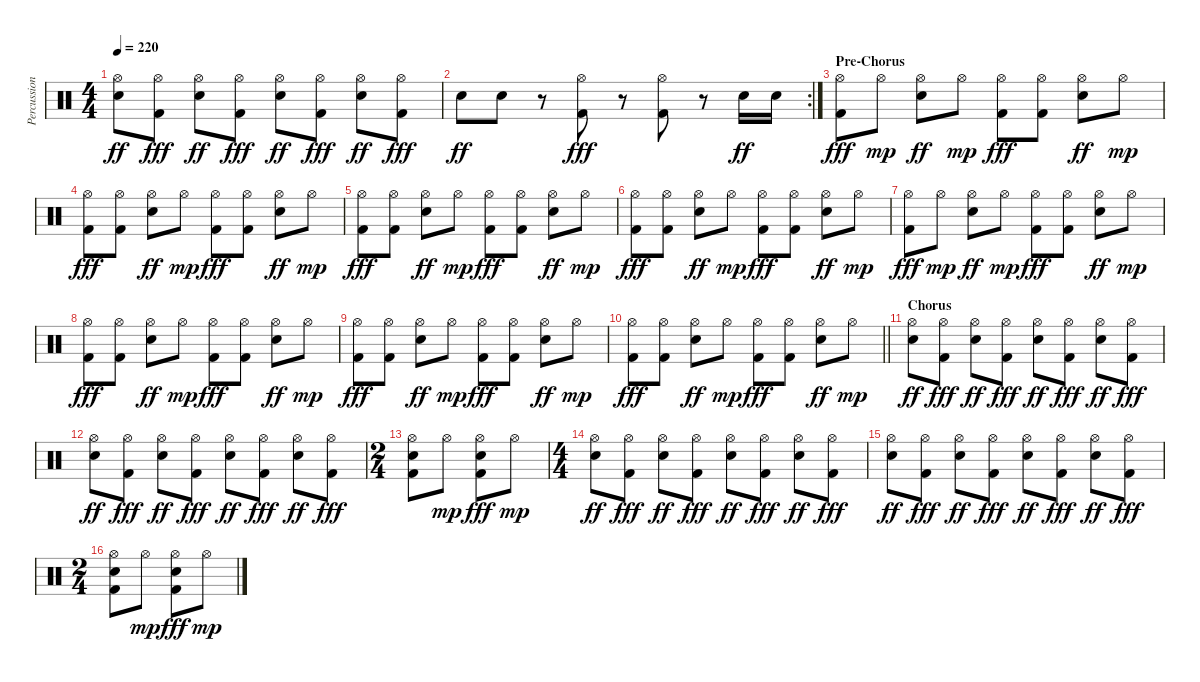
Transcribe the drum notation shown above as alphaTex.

\track ("Percussion" "Percussion") {instrument percussion}
\staff {score}
\articulation defaults
\ts (4 4)
\tempo 220
\clef neutral
\ks c
("Hi-Hat (open)" "Electric Snare (hit)").8{dy ff} ("Hi-Hat (open)" "Kick (hit) 2").8{dy fff} ("Hi-Hat (open)" "Electric Snare (hit)").8{dy ff} ("Hi-Hat (open)" "Kick (hit) 2").8{dy fff} ("Hi-Hat (open)" "Electric Snare (hit)").8{dy ff} ("Hi-Hat (open)" "Kick (hit) 2").8{dy fff} ("Hi-Hat (open)" "Electric Snare (hit)").8{dy ff} ("Hi-Hat (open)" "Kick (hit) 2").8{dy fff} |
\rc 2 "Electric Snare (hit)".8{dy ff} "Electric Snare (hit)".8
r.8 ("Hi-Hat (open)" "Kick (hit) 2").8{dy fff} r.8 ("Hi-Hat (open)" "Kick (hit) 2").8 r.8 "Electric Snare (hit)".16{dy ff} "Electric Snare (hit)".16 |
\section ("" "Pre-Chorus")
("Hi-Hat (open)" "Kick (hit) 2").8{dy fff} "Hi-Hat (open)".8{dy mp} ("Hi-Hat (open)" "Electric Snare (hit)").8{dy ff} "Hi-Hat (open)".8{dy mp} ("Hi-Hat (open)" "Kick (hit) 2").8{dy fff} ("Hi-Hat (open)" "Kick (hit) 2").8 ("Hi-Hat (open)" "Electric Snare (hit)").8{dy ff} "Hi-Hat (open)".8{dy mp} |
("Hi-Hat (open)" "Kick (hit) 2").8{dy fff} ("Hi-Hat (open)" "Kick (hit) 2").8 ("Hi-Hat (open)" "Electric Snare (hit)").8{dy ff} "Hi-Hat (open)".8{dy mp} ("Hi-Hat (open)" "Kick (hit) 2").8{dy fff} ("Hi-Hat (open)" "Kick (hit) 2").8 ("Hi-Hat (open)" "Electric Snare (hit)").8{dy ff} "Hi-Hat (open)".8{dy mp} |
("Hi-Hat (open)" "Kick (hit) 2").8{dy fff} ("Hi-Hat (open)" "Kick (hit) 2").8 ("Hi-Hat (open)" "Electric Snare (hit)").8{dy ff} "Hi-Hat (open)".8{dy mp} ("Hi-Hat (open)" "Kick (hit) 2").8{dy fff} ("Hi-Hat (open)" "Kick (hit) 2").8 ("Hi-Hat (open)" "Electric Snare (hit)").8{dy ff} "Hi-Hat (open)".8{dy mp} |
("Hi-Hat (open)" "Kick (hit) 2").8{dy fff} ("Hi-Hat (open)" "Kick (hit) 2").8 ("Hi-Hat (open)" "Electric Snare (hit)").8{dy ff} "Hi-Hat (open)".8{dy mp} ("Hi-Hat (open)" "Kick (hit) 2").8{dy fff} ("Hi-Hat (open)" "Kick (hit) 2").8 ("Hi-Hat (open)" "Electric Snare (hit)").8{dy ff} "Hi-Hat (open)".8{dy mp} |
("Hi-Hat (open)" "Kick (hit) 2").8{dy fff} "Hi-Hat (open)".8{dy mp} ("Hi-Hat (open)" "Electric Snare (hit)").8{dy ff} "Hi-Hat (open)".8{dy mp} ("Hi-Hat (open)" "Kick (hit) 2").8{dy fff} ("Hi-Hat (open)" "Kick (hit) 2").8 ("Hi-Hat (open)" "Electric Snare (hit)").8{dy ff} "Hi-Hat (open)".8{dy mp} |
("Hi-Hat (open)" "Kick (hit) 2").8{dy fff} ("Hi-Hat (open)" "Kick (hit) 2").8 ("Hi-Hat (open)" "Electric Snare (hit)").8{dy ff} "Hi-Hat (open)".8{dy mp} ("Hi-Hat (open)" "Kick (hit) 2").8{dy fff} ("Hi-Hat (open)" "Kick (hit) 2").8 ("Hi-Hat (open)" "Electric Snare (hit)").8{dy ff} "Hi-Hat (open)".8{dy mp} |
("Hi-Hat (open)" "Kick (hit) 2").8{dy fff} ("Hi-Hat (open)" "Kick (hit) 2").8 ("Hi-Hat (open)" "Electric Snare (hit)").8{dy ff} "Hi-Hat (open)".8{dy mp} ("Hi-Hat (open)" "Kick (hit) 2").8{dy fff} ("Hi-Hat (open)" "Kick (hit) 2").8 ("Hi-Hat (open)" "Electric Snare (hit)").8{dy ff} "Hi-Hat (open)".8{dy mp} |
\barLineRight lightlight
("Hi-Hat (open)" "Kick (hit) 2").8{dy fff} ("Hi-Hat (open)" "Kick (hit) 2").8 ("Hi-Hat (open)" "Electric Snare (hit)").8{dy ff} "Hi-Hat (open)".8{dy mp} ("Hi-Hat (open)" "Kick (hit) 2").8{dy fff} ("Hi-Hat (open)" "Kick (hit) 2").8 ("Hi-Hat (open)" "Electric Snare (hit)").8{dy ff} "Hi-Hat (open)".8{dy mp} |
\section ("" "Chorus")
("Hi-Hat (open)" "Electric Snare (hit)").8{dy ff} ("Hi-Hat (open)" "Kick (hit) 2").8{dy fff} ("Hi-Hat (open)" "Electric Snare (hit)").8{dy ff} ("Hi-Hat (open)" "Kick (hit) 2").8{dy fff} ("Hi-Hat (open)" "Electric Snare (hit)").8{dy ff} ("Hi-Hat (open)" "Kick (hit) 2").8{dy fff} ("Hi-Hat (open)" "Electric Snare (hit)").8{dy ff} ("Hi-Hat (open)" "Kick (hit) 2").8{dy fff} |
("Hi-Hat (open)" "Electric Snare (hit)").8{dy ff} ("Hi-Hat (open)" "Kick (hit) 2").8{dy fff} ("Hi-Hat (open)" "Electric Snare (hit)").8{dy ff} ("Hi-Hat (open)" "Kick (hit) 2").8{dy fff} ("Hi-Hat (open)" "Electric Snare (hit)").8{dy ff} ("Hi-Hat (open)" "Kick (hit) 2").8{dy fff} ("Hi-Hat (open)" "Electric Snare (hit)").8{dy ff} ("Hi-Hat (open)" "Kick (hit) 2").8{dy fff} |
\ts (2 4)
("Hi-Hat (open)" "Electric Snare (hit)" "Kick (hit) 2").8 "Hi-Hat (open)".8{dy mp} ("Hi-Hat (open)" "Electric Snare (hit)" "Kick (hit) 2").8{dy fff} "Hi-Hat (open)".8{dy mp} |
\ts (4 4)
("Hi-Hat (open)" "Electric Snare (hit)").8{dy ff} ("Hi-Hat (open)" "Kick (hit) 2").8{dy fff} ("Hi-Hat (open)" "Electric Snare (hit)").8{dy ff} ("Hi-Hat (open)" "Kick (hit) 2").8{dy fff} ("Hi-Hat (open)" "Electric Snare (hit)").8{dy ff} ("Hi-Hat (open)" "Kick (hit) 2").8{dy fff} ("Hi-Hat (open)" "Electric Snare (hit)").8{dy ff} ("Hi-Hat (open)" "Kick (hit) 2").8{dy fff} |
("Hi-Hat (open)" "Electric Snare (hit)").8{dy ff} ("Hi-Hat (open)" "Kick (hit) 2").8{dy fff} ("Hi-Hat (open)" "Electric Snare (hit)").8{dy ff} ("Hi-Hat (open)" "Kick (hit) 2").8{dy fff} ("Hi-Hat (open)" "Electric Snare (hit)").8{dy ff} ("Hi-Hat (open)" "Kick (hit) 2").8{dy fff} ("Hi-Hat (open)" "Electric Snare (hit)").8{dy ff} ("Hi-Hat (open)" "Kick (hit) 2").8{dy fff} |
\ts (2 4)
("Hi-Hat (open)" "Electric Snare (hit)" "Kick (hit) 2").8 "Hi-Hat (open)".8{dy mp} ("Hi-Hat (open)" "Electric Snare (hit)" "Kick (hit) 2").8{dy fff} "Hi-Hat (open)".8{dy mp}
